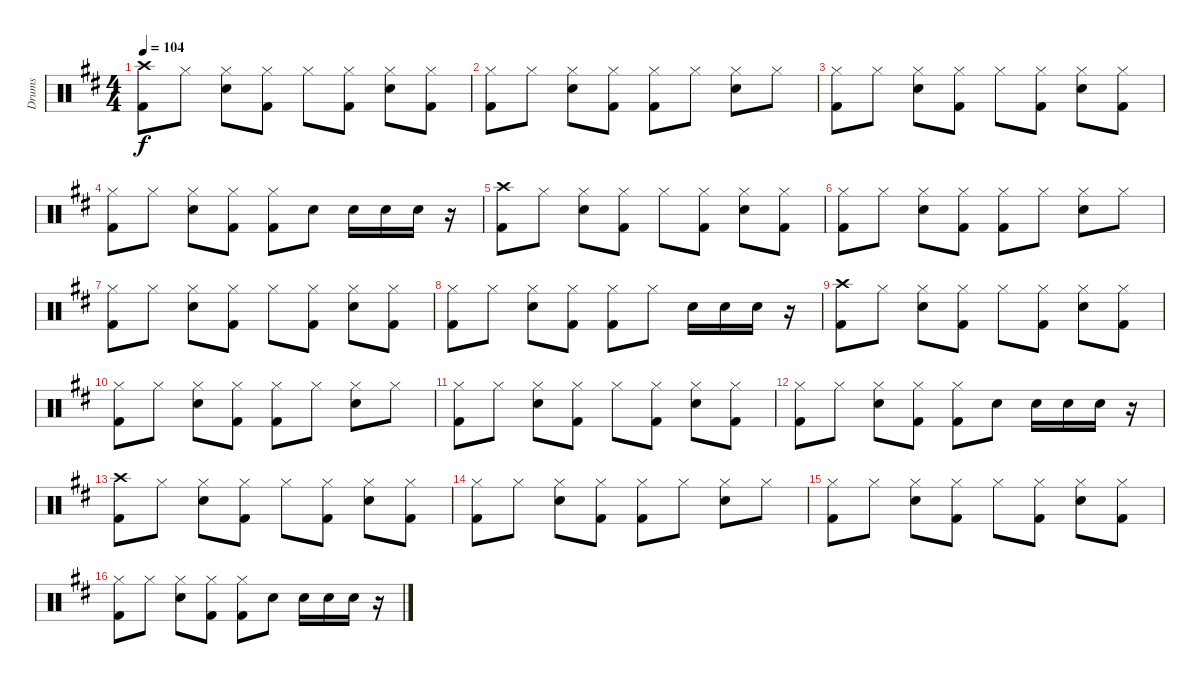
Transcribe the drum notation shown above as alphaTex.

\track ("Drums" "Drums") {instrument percussion}
\staff {score}
\articulation defaults
\ts (4 4)
\tempo 104
\clef neutral
\ks d
("Crash high (hit)" "Kick (hit) 2").8{dy f} "Hi-Hat (closed)".8 ("Hi-Hat (closed)" "Snare (hit) 2").8 ("Hi-Hat (closed)" "Kick (hit) 2").8 "Hi-Hat (closed)".8 ("Hi-Hat (closed)" "Kick (hit) 2").8 ("Hi-Hat (closed)" "Snare (hit) 2").8 ("Hi-Hat (closed)" "Kick (hit) 2").8 |
("Hi-Hat (closed)" "Kick (hit) 2").8 "Hi-Hat (closed)".8 ("Hi-Hat (closed)" "Snare (hit) 2").8 ("Hi-Hat (closed)" "Kick (hit) 2").8 ("Hi-Hat (closed)" "Kick (hit) 2").8 "Hi-Hat (closed)".8 ("Hi-Hat (closed)" "Snare (hit) 2").8 "Hi-Hat (closed)".8 |
("Hi-Hat (closed)" "Kick (hit) 2").8 "Hi-Hat (closed)".8 ("Hi-Hat (closed)" "Snare (hit) 2").8 ("Hi-Hat (closed)" "Kick (hit) 2").8 "Hi-Hat (closed)".8 ("Hi-Hat (closed)" "Kick (hit) 2").8 ("Hi-Hat (closed)" "Snare (hit) 2").8 ("Hi-Hat (closed)" "Kick (hit) 2").8 |
("Hi-Hat (closed)" "Kick (hit) 2").8 "Hi-Hat (closed)".8 ("Hi-Hat (closed)" "Snare (hit) 2").8 ("Hi-Hat (closed)" "Kick (hit) 2").8 ("Hi-Hat (closed)" "Kick (hit) 2").8 "Snare (hit) 2".8 "Snare (hit) 2".16 "Snare (hit) 2".16 "Snare (hit) 2".16 r.16 |
("Crash high (hit)" "Kick (hit) 2").8 "Hi-Hat (closed)".8 ("Hi-Hat (closed)" "Snare (hit) 2").8 ("Hi-Hat (closed)" "Kick (hit) 2").8 "Hi-Hat (closed)".8 ("Hi-Hat (closed)" "Kick (hit) 2").8 ("Hi-Hat (closed)" "Snare (hit) 2").8 ("Hi-Hat (closed)" "Kick (hit) 2").8 |
("Hi-Hat (closed)" "Kick (hit) 2").8 "Hi-Hat (closed)".8 ("Hi-Hat (closed)" "Snare (hit) 2").8 ("Hi-Hat (closed)" "Kick (hit) 2").8 ("Hi-Hat (closed)" "Kick (hit) 2").8 "Hi-Hat (closed)".8 ("Hi-Hat (closed)" "Snare (hit) 2").8 "Hi-Hat (closed)".8 |
("Hi-Hat (closed)" "Kick (hit) 2").8 "Hi-Hat (closed)".8 ("Hi-Hat (closed)" "Snare (hit) 2").8 ("Hi-Hat (closed)" "Kick (hit) 2").8 "Hi-Hat (closed)".8 ("Hi-Hat (closed)" "Kick (hit) 2").8 ("Hi-Hat (closed)" "Snare (hit) 2").8 ("Hi-Hat (closed)" "Kick (hit) 2").8 |
("Hi-Hat (closed)" "Kick (hit) 2").8 "Hi-Hat (closed)".8 ("Hi-Hat (closed)" "Snare (hit) 2").8 ("Hi-Hat (closed)" "Kick (hit) 2").8 ("Hi-Hat (closed)" "Kick (hit) 2").8 "Hi-Hat (closed)".8 "Snare (hit) 2".16 "Snare (hit) 2".16 "Snare (hit) 2".16 r.16 |
("Crash high (hit)" "Kick (hit) 2").8 "Hi-Hat (closed)".8 ("Hi-Hat (closed)" "Snare (hit) 2").8 ("Hi-Hat (closed)" "Kick (hit) 2").8 "Hi-Hat (closed)".8 ("Hi-Hat (closed)" "Kick (hit) 2").8 ("Hi-Hat (closed)" "Snare (hit) 2").8 ("Hi-Hat (closed)" "Kick (hit) 2").8 |
("Hi-Hat (closed)" "Kick (hit) 2").8 "Hi-Hat (closed)".8 ("Hi-Hat (closed)" "Snare (hit) 2").8 ("Hi-Hat (closed)" "Kick (hit) 2").8 ("Hi-Hat (closed)" "Kick (hit) 2").8 "Hi-Hat (closed)".8 ("Hi-Hat (closed)" "Snare (hit) 2").8 "Hi-Hat (closed)".8 |
("Hi-Hat (closed)" "Kick (hit) 2").8 "Hi-Hat (closed)".8 ("Hi-Hat (closed)" "Snare (hit) 2").8 ("Hi-Hat (closed)" "Kick (hit) 2").8 "Hi-Hat (closed)".8 ("Hi-Hat (closed)" "Kick (hit) 2").8 ("Hi-Hat (closed)" "Snare (hit) 2").8 ("Hi-Hat (closed)" "Kick (hit) 2").8 |
("Hi-Hat (closed)" "Kick (hit) 2").8 "Hi-Hat (closed)".8 ("Hi-Hat (closed)" "Snare (hit) 2").8 ("Hi-Hat (closed)" "Kick (hit) 2").8 ("Hi-Hat (closed)" "Kick (hit) 2").8 "Snare (hit) 2".8 "Snare (hit) 2".16 "Snare (hit) 2".16 "Snare (hit) 2".16 r.16 |
("Crash high (hit)" "Kick (hit) 2").8 "Hi-Hat (closed)".8 ("Hi-Hat (closed)" "Snare (hit) 2").8 ("Hi-Hat (closed)" "Kick (hit) 2").8 "Hi-Hat (closed)".8 ("Hi-Hat (closed)" "Kick (hit) 2").8 ("Hi-Hat (closed)" "Snare (hit) 2").8 ("Hi-Hat (closed)" "Kick (hit) 2").8 |
("Hi-Hat (closed)" "Kick (hit) 2").8 "Hi-Hat (closed)".8 ("Hi-Hat (closed)" "Snare (hit) 2").8 ("Hi-Hat (closed)" "Kick (hit) 2").8 ("Hi-Hat (closed)" "Kick (hit) 2").8 "Hi-Hat (closed)".8 ("Hi-Hat (closed)" "Snare (hit) 2").8 "Hi-Hat (closed)".8 |
("Hi-Hat (closed)" "Kick (hit) 2").8 "Hi-Hat (closed)".8 ("Hi-Hat (closed)" "Snare (hit) 2").8 ("Hi-Hat (closed)" "Kick (hit) 2").8 "Hi-Hat (closed)".8 ("Hi-Hat (closed)" "Kick (hit) 2").8 ("Hi-Hat (closed)" "Snare (hit) 2").8 ("Hi-Hat (closed)" "Kick (hit) 2").8 |
("Hi-Hat (closed)" "Kick (hit) 2").8 "Hi-Hat (closed)".8 ("Hi-Hat (closed)" "Snare (hit) 2").8 ("Hi-Hat (closed)" "Kick (hit) 2").8 ("Hi-Hat (closed)" "Kick (hit) 2").8 "Snare (hit) 2".8 "Snare (hit) 2".16 "Snare (hit) 2".16 "Snare (hit) 2".16 r.16
